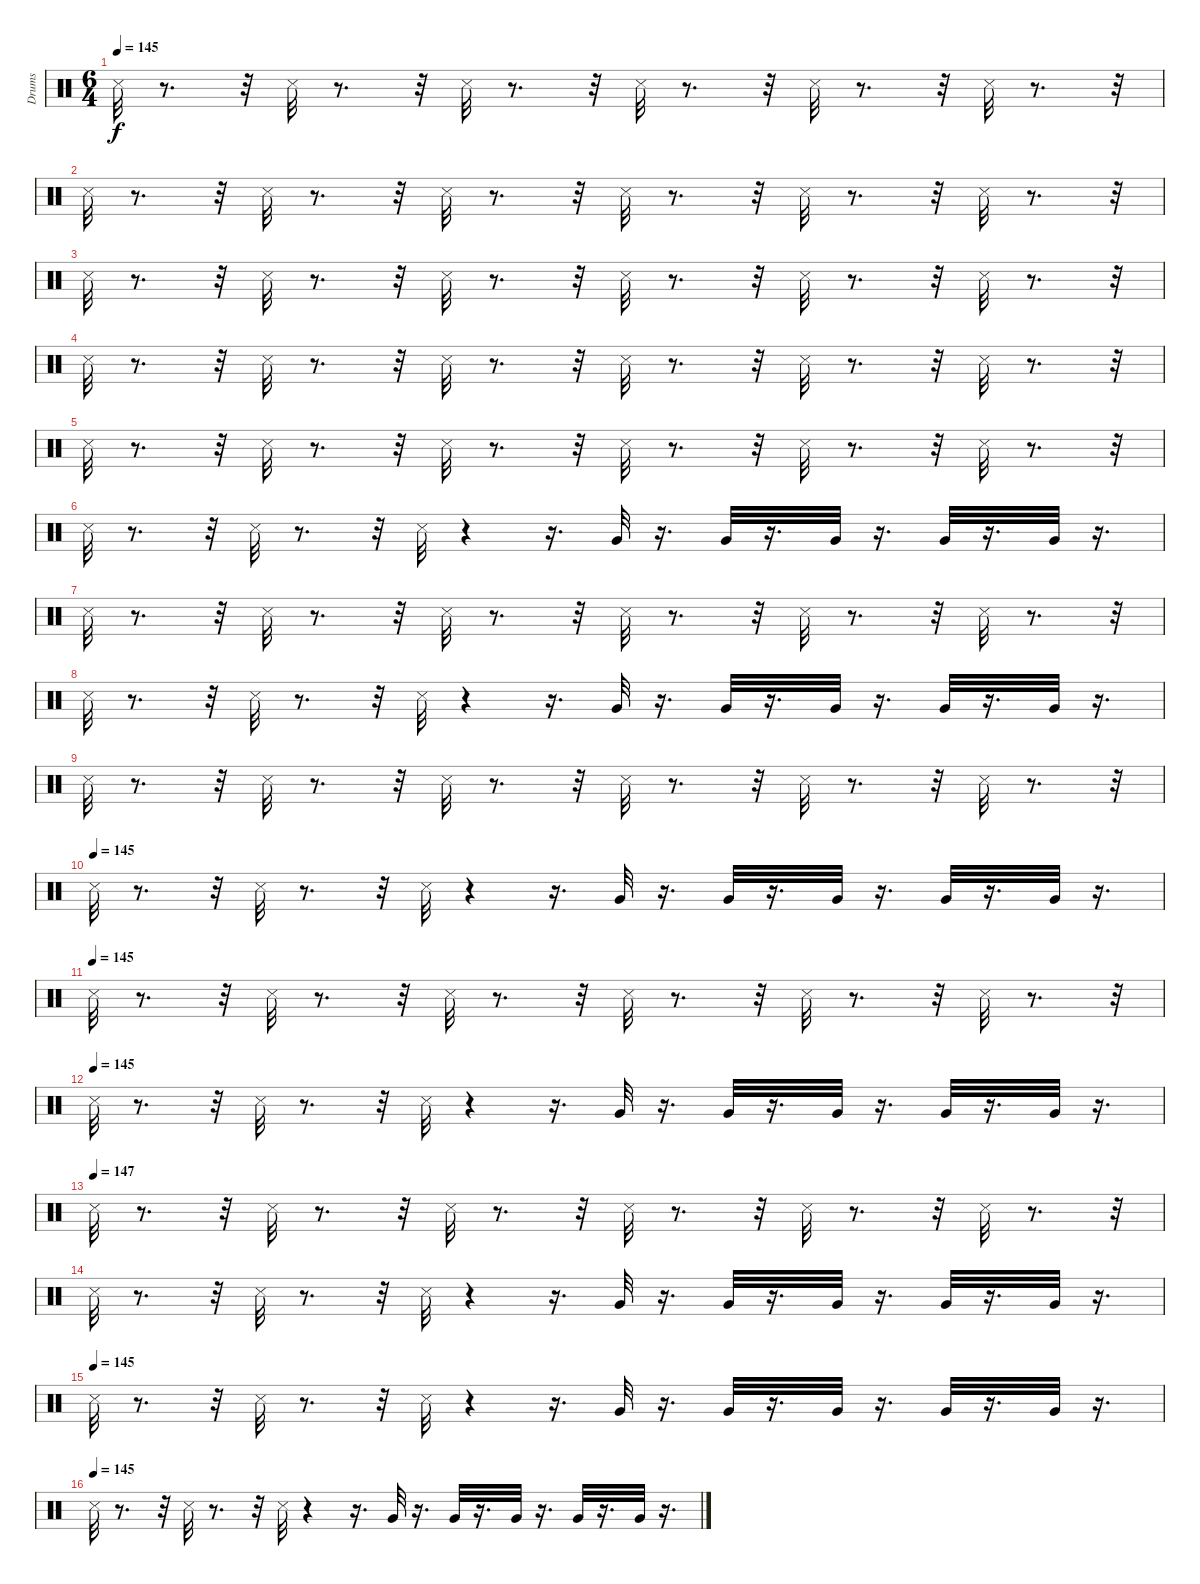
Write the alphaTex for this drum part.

\track ("Drums" "Drums") {instrument percussion}
\staff {score}
\articulation defaults
\ts (6 4)
\tempo 145
\clef neutral
\ks c "Metronome (hit)".32{dy f}
r.8{d} r.32 "Metronome (hit)".32 r.8{d} r.32 "Metronome (hit)".32 r.8{d} r.32 "Metronome (hit)".32 r.8{d} r.32 "Metronome (hit)".32 r.8{d} r.32 "Metronome (hit)".32 r.8{d} r.32 |
"Metronome (hit)".32 r.8{d} r.32 "Metronome (hit)".32 r.8{d} r.32 "Metronome (hit)".32 r.8{d} r.32 "Metronome (hit)".32 r.8{d} r.32 "Metronome (hit)".32 r.8{d} r.32 "Metronome (hit)".32 r.8{d} r.32 |
"Metronome (hit)".32 r.8{d} r.32 "Metronome (hit)".32 r.8{d} r.32 "Metronome (hit)".32 r.8{d} r.32 "Metronome (hit)".32 r.8{d} r.32 "Metronome (hit)".32 r.8{d} r.32 "Metronome (hit)".32 r.8{d} r.32 |
"Metronome (hit)".32 r.8{d} r.32 "Metronome (hit)".32 r.8{d} r.32 "Metronome (hit)".32 r.8{d} r.32 "Metronome (hit)".32 r.8{d} r.32 "Metronome (hit)".32 r.8{d} r.32 "Metronome (hit)".32 r.8{d} r.32 |
"Metronome (hit)".32 r.8{d} r.32 "Metronome (hit)".32 r.8{d} r.32 "Metronome (hit)".32 r.8{d} r.32 "Metronome (hit)".32 r.8{d} r.32 "Metronome (hit)".32 r.8{d} r.32 "Metronome (hit)".32 r.8{d} r.32 |
"Metronome (hit)".32 r.8{d} r.32 "Metronome (hit)".32 r.8{d} r.32 "Metronome (hit)".32 r.4 r.16{d} "Very Low Tom (hit)".32 r.16{d} "Very Low Tom (hit)".32 r.16{d} "Very Low Tom (hit)".32 r.16{d} "Very Low Tom (hit)".32 r.16{d} "Very Low Tom (hit)".32 r.16{d} |
"Metronome (hit)".32 r.8{d} r.32 "Metronome (hit)".32 r.8{d} r.32 "Metronome (hit)".32 r.8{d} r.32 "Metronome (hit)".32 r.8{d} r.32 "Metronome (hit)".32 r.8{d} r.32 "Metronome (hit)".32 r.8{d} r.32 |
"Metronome (hit)".32 r.8{d} r.32 "Metronome (hit)".32 r.8{d} r.32 "Metronome (hit)".32 r.4 r.16{d} "Very Low Tom (hit)".32 r.16{d} "Very Low Tom (hit)".32 r.16{d} "Very Low Tom (hit)".32 r.16{d} "Very Low Tom (hit)".32 r.16{d} "Very Low Tom (hit)".32 r.16{d} |
"Metronome (hit)".32 r.8{d} r.32 "Metronome (hit)".32 r.8{d} r.32 "Metronome (hit)".32 r.8{d} r.32 "Metronome (hit)".32 r.8{d} r.32 "Metronome (hit)".32 r.8{d} r.32 "Metronome (hit)".32 r.8{d} r.32 |
\tempo (145)
"Metronome (hit)".32 r.8{d} r.32 "Metronome (hit)".32 r.8{d} r.32 "Metronome (hit)".32 r.4 r.16{d} "Very Low Tom (hit)".32 r.16{d} "Very Low Tom (hit)".32 r.16{d} "Very Low Tom (hit)".32 r.16{d} "Very Low Tom (hit)".32 r.16{d} "Very Low Tom (hit)".32 r.16{d} |
\tempo (145)
"Metronome (hit)".32 r.8{d} r.32 "Metronome (hit)".32 r.8{d} r.32 "Metronome (hit)".32 r.8{d} r.32 "Metronome (hit)".32 r.8{d} r.32 "Metronome (hit)".32 r.8{d} r.32 "Metronome (hit)".32 r.8{d} r.32 |
\tempo (145)
"Metronome (hit)".32 r.8{d} r.32 "Metronome (hit)".32 r.8{d} r.32 "Metronome (hit)".32 r.4 r.16{d} "Very Low Tom (hit)".32 r.16{d} "Very Low Tom (hit)".32 r.16{d} "Very Low Tom (hit)".32 r.16{d} "Very Low Tom (hit)".32 r.16{d} "Very Low Tom (hit)".32 r.16{d} |
\tempo (147)
"Metronome (hit)".32 r.8{d} r.32 "Metronome (hit)".32 r.8{d} r.32 "Metronome (hit)".32 r.8{d} r.32 "Metronome (hit)".32 r.8{d} r.32 "Metronome (hit)".32 r.8{d} r.32 "Metronome (hit)".32 r.8{d} r.32 |
"Metronome (hit)".32 r.8{d} r.32 "Metronome (hit)".32 r.8{d} r.32 "Metronome (hit)".32 r.4 r.16{d} "Very Low Tom (hit)".32 r.16{d} "Very Low Tom (hit)".32 r.16{d} "Very Low Tom (hit)".32 r.16{d} "Very Low Tom (hit)".32 r.16{d} "Very Low Tom (hit)".32 r.16{d} |
\tempo (145)
"Metronome (hit)".32 r.8{d} r.32 "Metronome (hit)".32 r.8{d} r.32 "Metronome (hit)".32 r.4 r.16{d} "Very Low Tom (hit)".32 r.16{d} "Very Low Tom (hit)".32 r.16{d} "Very Low Tom (hit)".32 r.16{d} "Very Low Tom (hit)".32 r.16{d} "Very Low Tom (hit)".32 r.16{d} |
\tempo (145)
"Metronome (hit)".32 r.8{d} r.32 "Metronome (hit)".32 r.8{d} r.32 "Metronome (hit)".32 r.4 r.16{d} "Very Low Tom (hit)".32 r.16{d} "Very Low Tom (hit)".32 r.16{d} "Very Low Tom (hit)".32 r.16{d} "Very Low Tom (hit)".32 r.16{d} "Very Low Tom (hit)".32 r.16{d}
